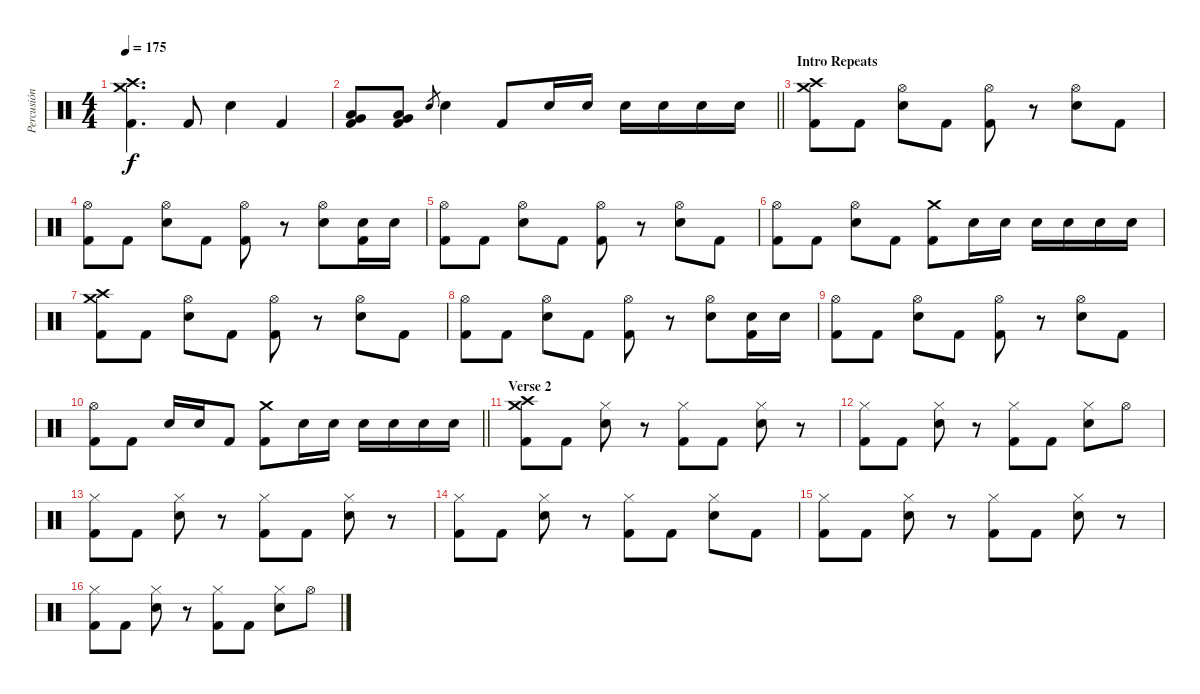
\track ("Percusión" "Percusión") {instrument percussion}
\staff {score}
\articulation defaults
\ts (4 4)
\tempo 175
\clef neutral
\ks c
("Crash high (hit)" "Crash medium (hit)" "Kick (hit) 2").4{d dy f} "Kick (hit) 2".8 "Electric Snare (hit)".4 "Kick (hit) 2".4 |
\barLineRight lightlight
("Low Tom (hit)" "Very Low Tom (hit)" "Kick (hit) 2").8 ("Low Tom (hit)" "Very Low Tom (hit)" "Kick (hit) 2").8 "Electric Snare (hit)".8{gr} "Electric Snare (hit)".4 "Kick (hit) 2".8 "Electric Snare (hit)".16 "Electric Snare (hit)".16 "Electric Snare (hit)".16 "Electric Snare (hit)".16 "Electric Snare (hit)".16 "Electric Snare (hit)".16 |
\section ("" "Intro Repeats")
("Crash medium (hit)" "Crash high (hit)" "Kick (hit) 2").8 "Kick (hit) 2".8 ("Hi-Hat (open)" "Electric Snare (hit)").8 "Kick (hit) 2".8 ("Hi-Hat (open)" "Kick (hit) 2").8 r.8 ("Hi-Hat (open)" "Electric Snare (hit)").8 "Kick (hit) 2".8 |
("Hi-Hat (open)" "Kick (hit) 2").8 "Kick (hit) 2".8 ("Hi-Hat (open)" "Electric Snare (hit)").8 "Kick (hit) 2".8 ("Hi-Hat (open)" "Kick (hit) 2").8 r.8 ("Hi-Hat (open)" "Electric Snare (hit)").8 ("Electric Snare (hit)" "Kick (hit) 2").16 "Electric Snare (hit)".16 |
("Hi-Hat (open)" "Kick (hit) 2").8 "Kick (hit) 2".8 ("Hi-Hat (open)" "Electric Snare (hit)").8 "Kick (hit) 2".8 ("Hi-Hat (open)" "Kick (hit) 2").8 r.8 ("Hi-Hat (open)" "Electric Snare (hit)").8 "Kick (hit) 2".8 |
("Hi-Hat (open)" "Kick (hit) 2").8 "Kick (hit) 2".8 ("Hi-Hat (open)" "Electric Snare (hit)").8 "Kick (hit) 2".8 ("Crash medium (hit)" "Kick (hit) 2").8 "Electric Snare (hit)".16 "Electric Snare (hit)".16 "Electric Snare (hit)".16 "Electric Snare (hit)".16 "Electric Snare (hit)".16 "Electric Snare (hit)".16 |
("Crash medium (hit)" "Crash high (hit)" "Kick (hit) 2").8 "Kick (hit) 2".8 ("Hi-Hat (open)" "Electric Snare (hit)").8 "Kick (hit) 2".8 ("Hi-Hat (open)" "Kick (hit) 2").8 r.8 ("Hi-Hat (open)" "Electric Snare (hit)").8 "Kick (hit) 2".8 |
("Hi-Hat (open)" "Kick (hit) 2").8 "Kick (hit) 2".8 ("Hi-Hat (open)" "Electric Snare (hit)").8 "Kick (hit) 2".8 ("Hi-Hat (open)" "Kick (hit) 2").8 r.8 ("Hi-Hat (open)" "Electric Snare (hit)").8 ("Electric Snare (hit)" "Kick (hit) 2").16 "Electric Snare (hit)".16 |
("Hi-Hat (open)" "Kick (hit) 2").8 "Kick (hit) 2".8 ("Hi-Hat (open)" "Electric Snare (hit)").8 "Kick (hit) 2".8 ("Hi-Hat (open)" "Kick (hit) 2").8 r.8 ("Hi-Hat (open)" "Electric Snare (hit)").8 "Kick (hit) 2".8 |
\barLineRight lightlight
("Hi-Hat (open)" "Kick (hit) 2").8 "Kick (hit) 2".8 "Electric Snare (hit)".16 "Electric Snare (hit)".16 "Kick (hit) 2".8 ("Crash medium (hit)" "Kick (hit) 2").8 "Electric Snare (hit)".16 "Electric Snare (hit)".16 "Electric Snare (hit)".16 "Electric Snare (hit)".16 "Electric Snare (hit)".16 "Electric Snare (hit)".16 |
\section ("" "Verse 2")
("Crash high (hit)" "Crash medium (hit)" "Kick (hit) 2").8 "Kick (hit) 2".8 ("Hi-Hat (closed)" "Electric Snare (hit)").8 r.8 ("Hi-Hat (closed)" "Kick (hit) 2").8 "Kick (hit) 2".8 ("Hi-Hat (closed)" "Electric Snare (hit)").8 r.8 |
("Hi-Hat (closed)" "Kick (hit) 2").8 "Kick (hit) 2".8 ("Hi-Hat (closed)" "Electric Snare (hit)").8 r.8 ("Hi-Hat (closed)" "Kick (hit) 2").8 "Kick (hit) 2".8 ("Hi-Hat (closed)" "Electric Snare (hit)").8 "Hi-Hat (open)".8 |
("Hi-Hat (closed)" "Kick (hit) 2").8 "Kick (hit) 2".8 ("Hi-Hat (closed)" "Electric Snare (hit)").8 r.8 ("Hi-Hat (closed)" "Kick (hit) 2").8 "Kick (hit) 2".8 ("Hi-Hat (closed)" "Electric Snare (hit)").8 r.8 |
("Hi-Hat (closed)" "Kick (hit) 2").8 "Kick (hit) 2".8 ("Hi-Hat (closed)" "Electric Snare (hit)").8 r.8 ("Hi-Hat (closed)" "Kick (hit) 2").8 "Kick (hit) 2".8 ("Hi-Hat (closed)" "Electric Snare (hit)").8 "Kick (hit) 2".8 |
("Hi-Hat (closed)" "Kick (hit) 2").8 "Kick (hit) 2".8 ("Hi-Hat (closed)" "Electric Snare (hit)").8 r.8 ("Hi-Hat (closed)" "Kick (hit) 2").8 "Kick (hit) 2".8 ("Hi-Hat (closed)" "Electric Snare (hit)").8 r.8 |
("Hi-Hat (closed)" "Kick (hit) 2").8 "Kick (hit) 2".8 ("Hi-Hat (closed)" "Electric Snare (hit)").8 r.8 ("Hi-Hat (closed)" "Kick (hit) 2").8 "Kick (hit) 2".8 ("Hi-Hat (closed)" "Electric Snare (hit)").8 "Hi-Hat (open)".8
